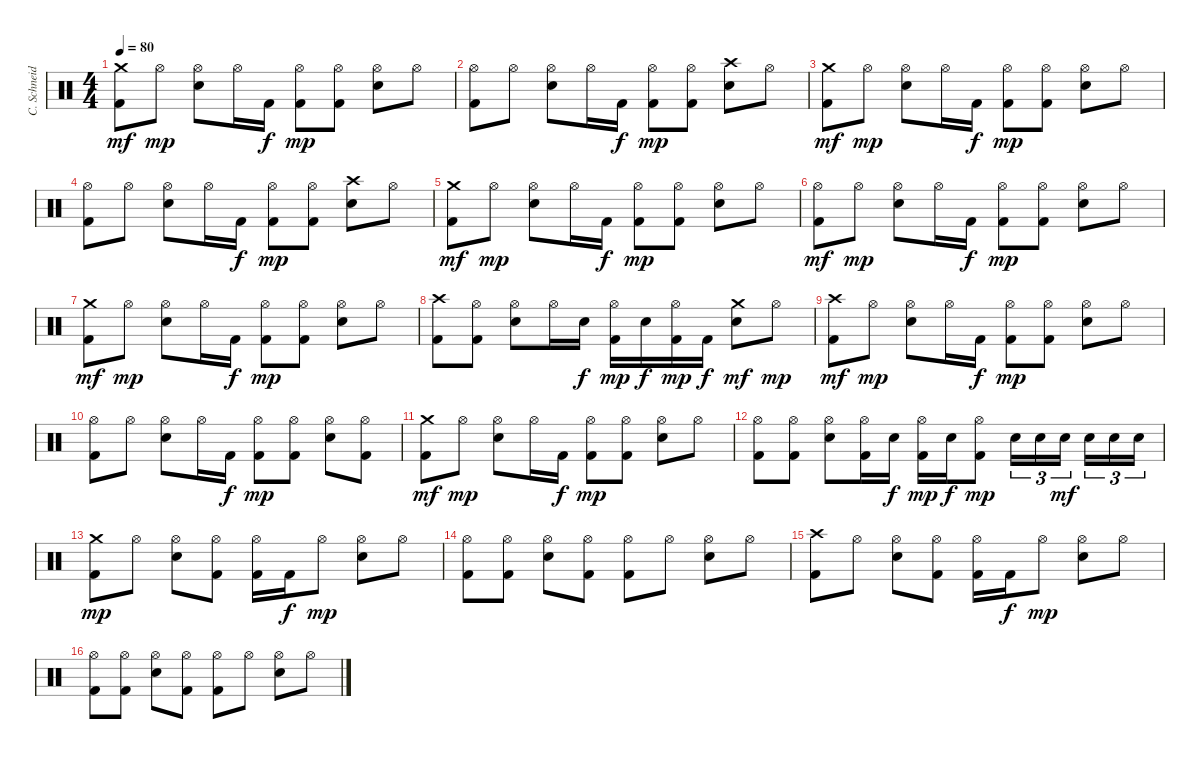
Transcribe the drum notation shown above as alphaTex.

\track ("C. Schneider" "C. Schneid") {instrument percussion}
\staff {score}
\articulation defaults
\ts (4 4)
\tempo 80
\clef neutral
\ks c
("Crash medium (hit)" "Kick (hit) 2").8{dy mf} "Hi-Hat (open)".8{dy mp} ("Hi-Hat (open)" "Snare (hit) 2").8 "Hi-Hat (open)".16 "Kick (hit) 2".16{dy f} ("Hi-Hat (open)" "Kick (hit) 2").8{dy mp} ("Hi-Hat (open)" "Kick (hit) 2").8 ("Hi-Hat (open)" "Snare (hit) 2").8 "Hi-Hat (open)".8 |
("Hi-Hat (open)" "Kick (hit) 2").8 "Hi-Hat (open)".8 ("Hi-Hat (open)" "Snare (hit) 2").8 "Hi-Hat (open)".16 "Kick (hit) 2".16{dy f} ("Hi-Hat (open)" "Kick (hit) 2").8{dy mp} ("Hi-Hat (open)" "Kick (hit) 2").8 ("Crash high (hit)" "Snare (hit) 2").8 "Hi-Hat (open)".8 |
("Crash medium (hit)" "Kick (hit) 2").8{dy mf} "Hi-Hat (open)".8{dy mp} ("Hi-Hat (open)" "Snare (hit) 2").8 "Hi-Hat (open)".16 "Kick (hit) 2".16{dy f} ("Hi-Hat (open)" "Kick (hit) 2").8{dy mp} ("Hi-Hat (open)" "Kick (hit) 2").8 ("Hi-Hat (open)" "Snare (hit) 2").8 "Hi-Hat (open)".8 |
("Hi-Hat (open)" "Kick (hit) 2").8 "Hi-Hat (open)".8 ("Hi-Hat (open)" "Snare (hit) 2").8 "Hi-Hat (open)".16 "Kick (hit) 2".16{dy f} ("Hi-Hat (open)" "Kick (hit) 2").8{dy mp} ("Hi-Hat (open)" "Kick (hit) 2").8 ("Crash high (hit)" "Snare (hit) 2").8 "Hi-Hat (open)".8 |
("Crash medium (hit)" "Kick (hit) 2").8{dy mf} "Hi-Hat (open)".8{dy mp} ("Hi-Hat (open)" "Snare (hit) 2").8 "Hi-Hat (open)".16 "Kick (hit) 2".16{dy f} ("Hi-Hat (open)" "Kick (hit) 2").8{dy mp} ("Hi-Hat (open)" "Kick (hit) 2").8 ("Hi-Hat (open)" "Snare (hit) 2").8 "Hi-Hat (open)".8 |
("Hi-Hat (open)" "Kick (hit) 2").8{dy mf} "Hi-Hat (open)".8{dy mp} ("Hi-Hat (open)" "Snare (hit) 2").8 "Hi-Hat (open)".16 "Kick (hit) 2".16{dy f} ("Hi-Hat (open)" "Kick (hit) 2").8{dy mp} ("Hi-Hat (open)" "Kick (hit) 2").8 ("Hi-Hat (open)" "Snare (hit) 2").8 "Hi-Hat (open)".8 |
("Crash medium (hit)" "Kick (hit) 2").8{dy mf} "Hi-Hat (open)".8{dy mp} ("Hi-Hat (open)" "Snare (hit) 2").8 "Hi-Hat (open)".16 "Kick (hit) 2".16{dy f} ("Hi-Hat (open)" "Kick (hit) 2").8{dy mp} ("Hi-Hat (open)" "Kick (hit) 2").8 ("Hi-Hat (open)" "Snare (hit) 2").8 "Hi-Hat (open)".8 |
("Crash high (hit)" "Kick (hit) 2").8 ("Hi-Hat (open)" "Kick (hit) 2").8 ("Hi-Hat (open)" "Snare (hit) 2").8 "Hi-Hat (open)".16 "Snare (hit) 2".16{dy f} ("Hi-Hat (open)" "Kick (hit) 2").16{dy mp} "Snare (hit) 2".16{dy f} ("Hi-Hat (open)" "Kick (hit) 2").16{dy mp} "Kick (hit) 2".16{dy f} ("Crash medium (hit)" "Snare (hit) 2").8{dy mf} "Hi-Hat (open)".8{dy mp} |
("Crash high (hit)" "Kick (hit) 2").8{dy mf} "Hi-Hat (open)".8{dy mp} ("Hi-Hat (open)" "Snare (hit) 2").8 "Hi-Hat (open)".16 "Kick (hit) 2".16{dy f} ("Hi-Hat (open)" "Kick (hit) 2").8{dy mp} ("Hi-Hat (open)" "Kick (hit) 2").8 ("Hi-Hat (open)" "Snare (hit) 2").8 "Hi-Hat (open)".8 |
("Hi-Hat (open)" "Kick (hit) 2").8 "Hi-Hat (open)".8 ("Hi-Hat (open)" "Snare (hit) 2").8 "Hi-Hat (open)".16 "Kick (hit) 2".16{dy f} ("Hi-Hat (open)" "Kick (hit) 2").8{dy mp} ("Hi-Hat (open)" "Kick (hit) 2").8 ("Hi-Hat (open)" "Snare (hit) 2").8 ("Hi-Hat (open)" "Kick (hit) 2").8 |
("Crash medium (hit)" "Kick (hit) 2").8{dy mf} "Hi-Hat (open)".8{dy mp} ("Hi-Hat (open)" "Snare (hit) 2").8 "Hi-Hat (open)".16 "Kick (hit) 2".16{dy f} ("Hi-Hat (open)" "Kick (hit) 2").8{dy mp} ("Hi-Hat (open)" "Kick (hit) 2").8 ("Hi-Hat (open)" "Snare (hit) 2").8 "Hi-Hat (open)".8 |
("Hi-Hat (open)" "Kick (hit) 2").8 ("Hi-Hat (open)" "Kick (hit) 2").8 ("Hi-Hat (open)" "Snare (hit) 2").8 ("Hi-Hat (open)" "Kick (hit) 2").16 "Snare (hit) 2".16{dy f} ("Hi-Hat (open)" "Kick (hit) 2").16{dy mp} "Snare (hit) 2".16{dy f} ("Hi-Hat (open)" "Kick (hit) 2").8{dy mp} "Snare (hit) 2".16{tu (3 2)} "Snare (hit) 2".16{tu (3 2)} "Snare (hit) 2".16{tu (3 2) dy mf} "Snare (hit) 2".16{tu (3 2)} "Snare (hit) 2".16{tu (3 2)} "Snare (hit) 2".16{tu (3 2)} |
("Crash medium (hit)" "Kick (hit) 2").8{dy mp} "Hi-Hat (open)".8 ("Hi-Hat (open)" "Snare (hit) 2").8 ("Hi-Hat (open)" "Kick (hit) 2").8 ("Hi-Hat (open)" "Kick (hit) 2").16 "Kick (hit) 2".16{dy f} "Hi-Hat (open)".8{dy mp} ("Hi-Hat (open)" "Snare (hit) 2").8 "Hi-Hat (open)".8 |
("Hi-Hat (open)" "Kick (hit) 2").8 ("Hi-Hat (open)" "Kick (hit) 2").8 ("Hi-Hat (open)" "Snare (hit) 2").8 ("Hi-Hat (open)" "Kick (hit) 2").8 ("Hi-Hat (open)" "Kick (hit) 2").8 "Hi-Hat (open)".8 ("Hi-Hat (open)" "Snare (hit) 2").8 "Hi-Hat (open)".8 |
("Crash high (hit)" "Kick (hit) 2").8 "Hi-Hat (open)".8 ("Hi-Hat (open)" "Snare (hit) 2").8 ("Hi-Hat (open)" "Kick (hit) 2").8 ("Hi-Hat (open)" "Kick (hit) 2").16 "Kick (hit) 2".16{dy f} "Hi-Hat (open)".8{dy mp} ("Hi-Hat (open)" "Snare (hit) 2").8 "Hi-Hat (open)".8 |
("Hi-Hat (open)" "Kick (hit) 2").8 ("Hi-Hat (open)" "Kick (hit) 2").8 ("Hi-Hat (open)" "Snare (hit) 2").8 ("Hi-Hat (open)" "Kick (hit) 2").8 ("Hi-Hat (open)" "Kick (hit) 2").8 "Hi-Hat (open)".8 ("Hi-Hat (open)" "Snare (hit) 2").8 "Hi-Hat (open)".8
